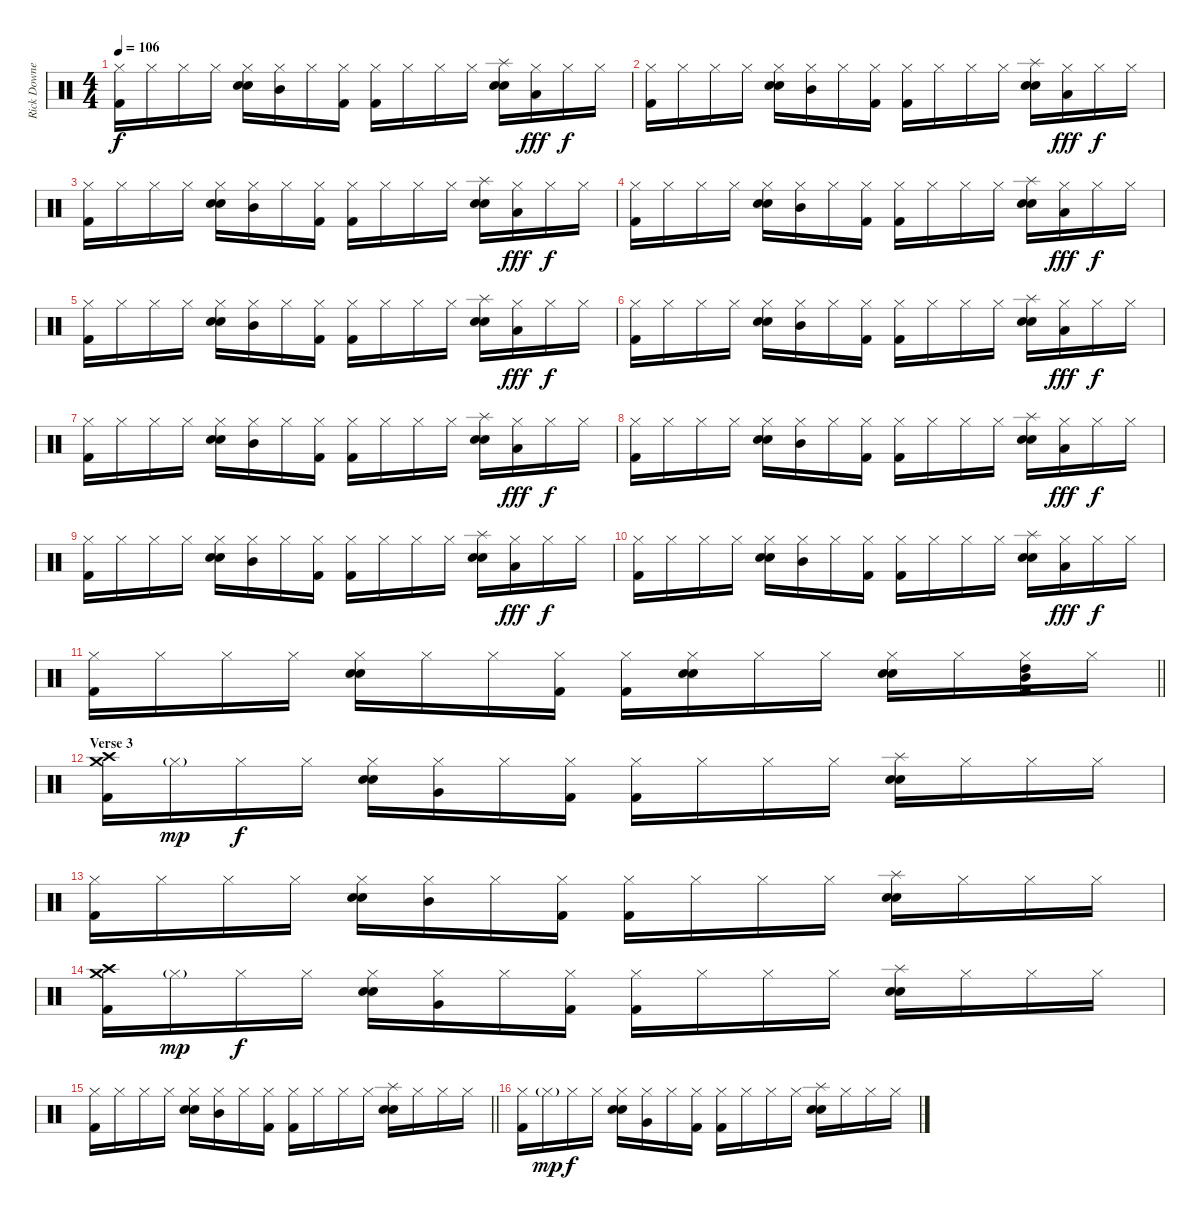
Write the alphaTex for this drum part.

\track ("Rick Downey" "Rick Downe") {instrument percussion}
\staff {score}
\articulation defaults
\ts (4 4)
\tempo 106
\clef neutral
\ks c
("Hi-Hat (closed)" "Kick (hit) 2").16{dy f} "Hi-Hat (closed)".16 "Hi-Hat (closed)".16 "Hi-Hat (closed)".16 ("Hi-Hat (closed)" "Electric Snare (hit)" "Snare (hit) 2").16 ("Mid Tom (hit)" "Hi-Hat (closed)").16 "Hi-Hat (closed)".16 ("Hi-Hat (closed)" "Kick (hit) 2").16 ("Hi-Hat (closed)" "Kick (hit) 2").16 "Hi-Hat (closed)".16 "Hi-Hat (closed)".16 "Hi-Hat (closed)".16 ("Splash (hit)" "Electric Snare (hit)" "Snare (hit) 2").16 ("Low Tom (hit)" "Hi-Hat (closed)").16{dy fff} "Hi-Hat (closed)".16{dy f} "Hi-Hat (closed)".16 |
("Hi-Hat (closed)" "Kick (hit) 2").16 "Hi-Hat (closed)".16 "Hi-Hat (closed)".16 "Hi-Hat (closed)".16 ("Hi-Hat (closed)" "Electric Snare (hit)" "Snare (hit) 2").16 ("Mid Tom (hit)" "Hi-Hat (closed)").16 "Hi-Hat (closed)".16 ("Hi-Hat (closed)" "Kick (hit) 2").16 ("Hi-Hat (closed)" "Kick (hit) 2").16 "Hi-Hat (closed)".16 "Hi-Hat (closed)".16 "Hi-Hat (closed)".16 ("Splash (hit)" "Electric Snare (hit)" "Snare (hit) 2").16 ("Low Tom (hit)" "Hi-Hat (closed)").16{dy fff} "Hi-Hat (closed)".16{dy f} "Hi-Hat (closed)".16 |
("Hi-Hat (closed)" "Kick (hit) 2").16 "Hi-Hat (closed)".16 "Hi-Hat (closed)".16 "Hi-Hat (closed)".16 ("Hi-Hat (closed)" "Electric Snare (hit)" "Snare (hit) 2").16 ("Mid Tom (hit)" "Hi-Hat (closed)").16 "Hi-Hat (closed)".16 ("Hi-Hat (closed)" "Kick (hit) 2").16 ("Hi-Hat (closed)" "Kick (hit) 2").16 "Hi-Hat (closed)".16 "Hi-Hat (closed)".16 "Hi-Hat (closed)".16 ("Splash (hit)" "Electric Snare (hit)" "Snare (hit) 2").16 ("Low Tom (hit)" "Hi-Hat (closed)").16{dy fff} "Hi-Hat (closed)".16{dy f} "Hi-Hat (closed)".16 |
("Hi-Hat (closed)" "Kick (hit) 2").16 "Hi-Hat (closed)".16 "Hi-Hat (closed)".16 "Hi-Hat (closed)".16 ("Hi-Hat (closed)" "Electric Snare (hit)" "Snare (hit) 2").16 ("Mid Tom (hit)" "Hi-Hat (closed)").16 "Hi-Hat (closed)".16 ("Hi-Hat (closed)" "Kick (hit) 2").16 ("Hi-Hat (closed)" "Kick (hit) 2").16 "Hi-Hat (closed)".16 "Hi-Hat (closed)".16 "Hi-Hat (closed)".16 ("Splash (hit)" "Electric Snare (hit)" "Snare (hit) 2").16 ("Low Tom (hit)" "Hi-Hat (closed)").16{dy fff} "Hi-Hat (closed)".16{dy f} "Hi-Hat (closed)".16 |
("Hi-Hat (closed)" "Kick (hit) 2").16 "Hi-Hat (closed)".16 "Hi-Hat (closed)".16 "Hi-Hat (closed)".16 ("Hi-Hat (closed)" "Electric Snare (hit)" "Snare (hit) 2").16 ("Mid Tom (hit)" "Hi-Hat (closed)").16 "Hi-Hat (closed)".16 ("Hi-Hat (closed)" "Kick (hit) 2").16 ("Hi-Hat (closed)" "Kick (hit) 2").16 "Hi-Hat (closed)".16 "Hi-Hat (closed)".16 "Hi-Hat (closed)".16 ("Splash (hit)" "Electric Snare (hit)" "Snare (hit) 2").16 ("Low Tom (hit)" "Hi-Hat (closed)").16{dy fff} "Hi-Hat (closed)".16{dy f} "Hi-Hat (closed)".16 |
("Hi-Hat (closed)" "Kick (hit) 2").16 "Hi-Hat (closed)".16 "Hi-Hat (closed)".16 "Hi-Hat (closed)".16 ("Hi-Hat (closed)" "Electric Snare (hit)" "Snare (hit) 2").16 ("Mid Tom (hit)" "Hi-Hat (closed)").16 "Hi-Hat (closed)".16 ("Hi-Hat (closed)" "Kick (hit) 2").16 ("Hi-Hat (closed)" "Kick (hit) 2").16 "Hi-Hat (closed)".16 "Hi-Hat (closed)".16 "Hi-Hat (closed)".16 ("Splash (hit)" "Electric Snare (hit)" "Snare (hit) 2").16 ("Low Tom (hit)" "Hi-Hat (closed)").16{dy fff} "Hi-Hat (closed)".16{dy f} "Hi-Hat (closed)".16 |
("Hi-Hat (closed)" "Kick (hit) 2").16 "Hi-Hat (closed)".16 "Hi-Hat (closed)".16 "Hi-Hat (closed)".16 ("Hi-Hat (closed)" "Electric Snare (hit)" "Snare (hit) 2").16 ("Mid Tom (hit)" "Hi-Hat (closed)").16 "Hi-Hat (closed)".16 ("Hi-Hat (closed)" "Kick (hit) 2").16 ("Hi-Hat (closed)" "Kick (hit) 2").16 "Hi-Hat (closed)".16 "Hi-Hat (closed)".16 "Hi-Hat (closed)".16 ("Splash (hit)" "Electric Snare (hit)" "Snare (hit) 2").16 ("Low Tom (hit)" "Hi-Hat (closed)").16{dy fff} "Hi-Hat (closed)".16{dy f} "Hi-Hat (closed)".16 |
("Hi-Hat (closed)" "Kick (hit) 2").16 "Hi-Hat (closed)".16 "Hi-Hat (closed)".16 "Hi-Hat (closed)".16 ("Hi-Hat (closed)" "Electric Snare (hit)" "Snare (hit) 2").16 ("Mid Tom (hit)" "Hi-Hat (closed)").16 "Hi-Hat (closed)".16 ("Hi-Hat (closed)" "Kick (hit) 2").16 ("Hi-Hat (closed)" "Kick (hit) 2").16 "Hi-Hat (closed)".16 "Hi-Hat (closed)".16 "Hi-Hat (closed)".16 ("Splash (hit)" "Electric Snare (hit)" "Snare (hit) 2").16 ("Low Tom (hit)" "Hi-Hat (closed)").16{dy fff} "Hi-Hat (closed)".16{dy f} "Hi-Hat (closed)".16 |
("Hi-Hat (closed)" "Kick (hit) 2").16 "Hi-Hat (closed)".16 "Hi-Hat (closed)".16 "Hi-Hat (closed)".16 ("Hi-Hat (closed)" "Electric Snare (hit)" "Snare (hit) 2").16 ("Mid Tom (hit)" "Hi-Hat (closed)").16 "Hi-Hat (closed)".16 ("Hi-Hat (closed)" "Kick (hit) 2").16 ("Hi-Hat (closed)" "Kick (hit) 2").16 "Hi-Hat (closed)".16 "Hi-Hat (closed)".16 "Hi-Hat (closed)".16 ("Splash (hit)" "Electric Snare (hit)" "Snare (hit) 2").16 ("Low Tom (hit)" "Hi-Hat (closed)").16{dy fff} "Hi-Hat (closed)".16{dy f} "Hi-Hat (closed)".16 |
("Hi-Hat (closed)" "Kick (hit) 2").16 "Hi-Hat (closed)".16 "Hi-Hat (closed)".16 "Hi-Hat (closed)".16 ("Hi-Hat (closed)" "Electric Snare (hit)" "Snare (hit) 2").16 ("Mid Tom (hit)" "Hi-Hat (closed)").16 "Hi-Hat (closed)".16 ("Hi-Hat (closed)" "Kick (hit) 2").16 ("Hi-Hat (closed)" "Kick (hit) 2").16 "Hi-Hat (closed)".16 "Hi-Hat (closed)".16 "Hi-Hat (closed)".16 ("Splash (hit)" "Electric Snare (hit)" "Snare (hit) 2").16 ("Low Tom (hit)" "Hi-Hat (closed)").16{dy fff} "Hi-Hat (closed)".16{dy f} "Hi-Hat (closed)".16 |
\barLineRight lightlight
("Hi-Hat (closed)" "Kick (hit) 2").16 "Hi-Hat (closed)".16 "Hi-Hat (closed)".16 "Hi-Hat (closed)".16 ("Hi-Hat (closed)" "Electric Snare (hit)" "Snare (hit) 2").16 "Hi-Hat (closed)".16 "Hi-Hat (closed)".16 ("Hi-Hat (closed)" "Kick (hit) 2").16 ("Hi-Hat (closed)" "Kick (hit) 2").16 ("Hi-Hat (closed)" "Electric Snare (hit)" "Snare (hit) 2").16 "Hi-Hat (closed)".16 "Hi-Hat (closed)".16 ("Hi-Hat (closed)" "Electric Snare (hit)" "Snare (hit) 2").16 "Hi-Hat (closed)".16 ("High Tom (hit)" "Mid Tom (hit)" "Hi-Hat (closed)" "Kick (hit) 2").16 "Hi-Hat (closed)".16 |
\section ("" "Verse 3")
("Crash medium (hit)" "Crash high (hit)" "Kick (hit) 2").16 "Hi-Hat (closed)"{g}.16{dy mp} "Hi-Hat (closed)".16{dy f} "Hi-Hat (closed)".16 ("Hi-Hat (closed)" "Electric Snare (hit)" "Snare (hit) 2").16 ("Hi-Hat (closed)" "Very Low Tom (hit)").16 "Hi-Hat (closed)".16 ("Hi-Hat (closed)" "Kick (hit) 2").16 ("Hi-Hat (closed)" "Kick (hit) 2").16 "Hi-Hat (closed)".16 "Hi-Hat (closed)".16 "Hi-Hat (closed)".16 ("Splash (hit)" "Electric Snare (hit)" "Snare (hit) 2").16 "Hi-Hat (closed)".16 "Hi-Hat (closed)".16 "Hi-Hat (closed)".16 |
("Hi-Hat (closed)" "Kick (hit) 2").16 "Hi-Hat (closed)".16 "Hi-Hat (closed)".16 "Hi-Hat (closed)".16 ("Hi-Hat (closed)" "Electric Snare (hit)" "Snare (hit) 2").16 ("Mid Tom (hit)" "Hi-Hat (closed)").16 "Hi-Hat (closed)".16 ("Hi-Hat (closed)" "Kick (hit) 2").16 ("Hi-Hat (closed)" "Kick (hit) 2").16 "Hi-Hat (closed)".16 "Hi-Hat (closed)".16 "Hi-Hat (closed)".16 ("Splash (hit)" "Electric Snare (hit)" "Snare (hit) 2").16 "Hi-Hat (closed)".16 "Hi-Hat (closed)".16 "Hi-Hat (closed)".16 |
("Crash medium (hit)" "Crash high (hit)" "Kick (hit) 2").16 "Hi-Hat (closed)"{g}.16{dy mp} "Hi-Hat (closed)".16{dy f} "Hi-Hat (closed)".16 ("Hi-Hat (closed)" "Electric Snare (hit)" "Snare (hit) 2").16 ("Hi-Hat (closed)" "Very Low Tom (hit)").16 "Hi-Hat (closed)".16 ("Hi-Hat (closed)" "Kick (hit) 2").16 ("Hi-Hat (closed)" "Kick (hit) 2").16 "Hi-Hat (closed)".16 "Hi-Hat (closed)".16 "Hi-Hat (closed)".16 ("Splash (hit)" "Electric Snare (hit)" "Snare (hit) 2").16 "Hi-Hat (closed)".16 "Hi-Hat (closed)".16 "Hi-Hat (closed)".16 |
\barLineRight lightlight
("Hi-Hat (closed)" "Kick (hit) 2").16 "Hi-Hat (closed)".16 "Hi-Hat (closed)".16 "Hi-Hat (closed)".16 ("Hi-Hat (closed)" "Electric Snare (hit)" "Snare (hit) 2").16 ("Mid Tom (hit)" "Hi-Hat (closed)").16 "Hi-Hat (closed)".16 ("Hi-Hat (closed)" "Kick (hit) 2").16 ("Hi-Hat (closed)" "Kick (hit) 2").16 "Hi-Hat (closed)".16 "Hi-Hat (closed)".16 "Hi-Hat (closed)".16 ("Splash (hit)" "Electric Snare (hit)" "Snare (hit) 2").16 "Hi-Hat (closed)".16 "Hi-Hat (closed)".16 "Hi-Hat (closed)".16 |
("Hi-Hat (closed)" "Kick (hit) 2").16 "Hi-Hat (closed)"{g}.16{dy mp} "Hi-Hat (closed)".16{dy f} "Hi-Hat (closed)".16 ("Hi-Hat (closed)" "Electric Snare (hit)" "Snare (hit) 2").16 ("Hi-Hat (closed)" "Very Low Tom (hit)").16 "Hi-Hat (closed)".16 ("Hi-Hat (closed)" "Kick (hit) 2").16 ("Hi-Hat (closed)" "Kick (hit) 2").16 "Hi-Hat (closed)".16 "Hi-Hat (closed)".16 "Hi-Hat (closed)".16 ("Splash (hit)" "Electric Snare (hit)" "Snare (hit) 2").16 "Hi-Hat (closed)".16 "Hi-Hat (closed)".16 "Hi-Hat (closed)".16
